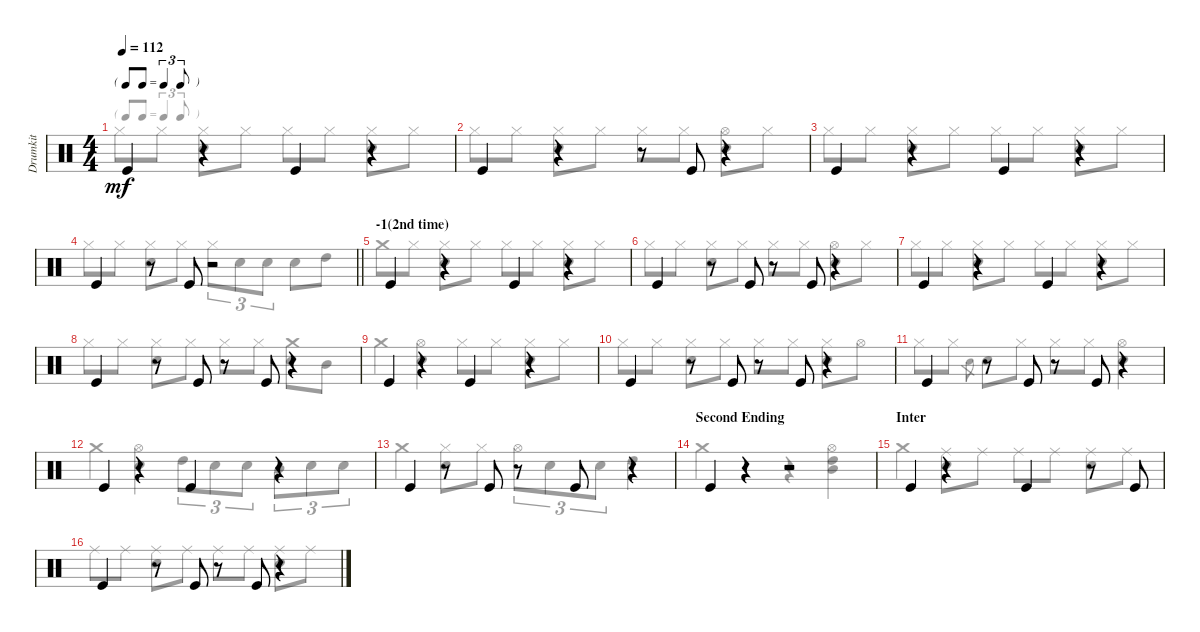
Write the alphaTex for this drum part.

\track ("Drumkit" "Drumkit") {instrument percussion}
\staff {score}
\articulation defaults
\voice
\ts (4 4)
\tf triplet8th
\tempo 112
\clef neutral
\ks c "Kick (hit)".4{dy mf}
r.4 "Kick (hit)".4 r.4 |
"Kick (hit)".4 r.4 r.8 "Kick (hit)".8 r.4 |
"Kick (hit)".4 r.4 "Kick (hit)".4 r.4 |
\barLineRight lightlight "Kick (hit)".4
r.8 "Kick (hit)".8 r.2 |
\section ("" "-1(2nd time)")
"Kick (hit)".4 r.4 "Kick (hit)".4 r.4 |
"Kick (hit)".4 r.8 "Kick (hit)".8 r.8 "Kick (hit)".8 r.4 |
"Kick (hit)".4 r.4 "Kick (hit)".4 r.4 |
"Kick (hit)".4 r.8 "Kick (hit)".8 r.8 "Kick (hit)".8 r.4 |
"Kick (hit)".4 r.4 "Kick (hit)".4 r.4 |
"Kick (hit)".4 r.8 "Kick (hit)".8 r.8 "Kick (hit)".8 r.4 |
"Kick (hit)".4 r.8 "Kick (hit)".8 r.8 "Kick (hit)".8 r.4 |
"Kick (hit)".4 r.4 "Kick (hit)".4 r.4 |
"Kick (hit)".4 r.8 "Kick (hit)".8 r.8 "Kick (hit)".8 r.4 |
\section ("" "Second Ending")
"Kick (hit)".4 r.4 r.2 |
\section ("" "Inter")
"Kick (hit)".4 r.4 "Kick (hit)".4 r.8 "Kick (hit)".8 |
"Kick (hit)".4 r.8 "Kick (hit)".8 r.8 "Kick (hit)".8 r.4
\voice
\clef neutral
\ottava regular
\simile none
\ks c "Hi-Hat (closed)".8{dy mf} "Hi-Hat (closed)".8
("Hi-Hat (closed)" "Snare (hit) 2").8 "Hi-Hat (closed)".8 "Hi-Hat (closed)".8 "Hi-Hat (closed)".8 ("Hi-Hat (closed)" "Snare (hit) 2").8 "Hi-Hat (closed)".8 |
"Hi-Hat (closed)".8 "Hi-Hat (closed)".8 ("Hi-Hat (closed)" "Snare (hit) 2").8 "Hi-Hat (closed)".8 "Hi-Hat (closed)".8 "Hi-Hat (closed)".8 ("Hi-Hat (open)" "Snare (hit) 2").8 "Hi-Hat (closed)".8 |
"Hi-Hat (closed)".8 "Hi-Hat (closed)".8 ("Hi-Hat (closed)" "Snare (hit) 2").8 "Hi-Hat (closed)".8 "Hi-Hat (closed)".8 "Hi-Hat (closed)".8 ("Hi-Hat (closed)" "Snare (hit) 2").8 "Hi-Hat (closed)".8 |
\barLineRight lightlight "Hi-Hat (closed)".8 "Hi-Hat (closed)".8
("Hi-Hat (closed)" "Snare (hit) 2").8 "Hi-Hat (closed)".8 "Hi-Hat (closed)".8{tu (3 2)} "Snare (hit) 2".8{tu (3 2)} "Snare (hit) 2".8{tu (3 2)} "Snare (hit) 2".8 "High Tom (hit)".8 |
"Crash medium (hit)".8 "Hi-Hat (closed)".8 ("Hi-Hat (closed)" "Snare (hit) 2").8 "Hi-Hat (closed)".8 "Hi-Hat (closed)".8 "Hi-Hat (closed)".8 ("Hi-Hat (closed)" "Snare (hit) 2").8 "Hi-Hat (closed)".8 |
"Hi-Hat (closed)".8 "Hi-Hat (closed)".8 ("Hi-Hat (closed)" "Snare (hit) 2").8 "Hi-Hat (closed)".8 "Hi-Hat (closed)".8 "Hi-Hat (closed)".8 ("Hi-Hat (open)" "Snare (hit) 2").8 "Hi-Hat (closed)".8 |
"Hi-Hat (closed)".8 "Hi-Hat (closed)".8 ("Hi-Hat (closed)" "Snare (hit) 2").8 "Hi-Hat (closed)".8 "Hi-Hat (closed)".8 "Hi-Hat (closed)".8 ("Hi-Hat (closed)" "Snare (hit) 2").8 "Hi-Hat (closed)".8 |
"Hi-Hat (closed)".8 "Hi-Hat (closed)".8 ("Hi-Hat (closed)" "Snare (hit) 2").8 "Hi-Hat (closed)".8 "Hi-Hat (closed)".8 "Hi-Hat (closed)".8 ("Crash medium (hit)" "Snare (hit) 2").8 "Mid Tom (hit)".8 |
"Crash medium (hit)".4 ("Hi-Hat (open)" "Snare (hit) 2").4 "Hi-Hat (closed)".8 "Hi-Hat (closed)".8 ("Hi-Hat (closed)" "Snare (hit) 2").8 "Hi-Hat (closed)".8 |
"Hi-Hat (closed)".8 "Hi-Hat (closed)".8 ("Hi-Hat (closed)" "Snare (hit) 2").8 "Hi-Hat (closed)".8 "Hi-Hat (closed)".8 "Hi-Hat (closed)".8 ("Hi-Hat (closed)" "Snare (hit) 2").8 "Hi-Hat (open)".8 |
"Hi-Hat (closed)".8 "Hi-Hat (closed)".8 "Snare (hit)".8{gr} "Snare (hit) 2".8 "Hi-Hat (closed)".8 "Hi-Hat (closed)".8 "Hi-Hat (closed)".8 ("Hi-Hat (open)" "Snare (hit) 2").4 |
"Crash medium (hit)".4 ("Hi-Hat (open)" "Snare (hit) 2").4 "High Tom (hit)".8{tu (3 2)} "Snare (hit) 2".8{tu (3 2)} "Snare (hit) 2".8{tu (3 2)} "Mid Tom (hit)".8{tu (3 2)} "Snare (hit) 2".8{tu (3 2)} "Snare (hit) 2".8{tu (3 2)} |
"Crash medium (hit)".4 ("Hi-Hat (closed)" "Snare (hit) 2").8 "Hi-Hat (closed)".8 "Hi-Hat (open)".8{tu (3 2)} "Snare (hit) 2".8{tu (3 2)} "Snare (hit) 2".8{tu (3 2)} "High Tom (hit)".4 |
"Crash medium (hit)".4 r.4 r.4 ("Hi-Hat (open)" "High Tom (hit)" "Mid Tom (hit)").4 |
"Crash medium (hit)".4 ("Ride (middle)" "Snare (hit) 2").8 "Ride (middle)".8 "Ride (middle)".8 "Ride (middle)".8 ("Ride (middle)" "Snare (hit) 2").8 "Ride (middle)".8 |
"Ride (middle)".8 "Ride (middle)".8 ("Ride (middle)" "Snare (hit) 2").8 "Ride (middle)".8 "Ride (middle)".8 "Ride (middle)".8 ("Ride (middle)" "Snare (hit) 2").8 "Ride (middle)".8
